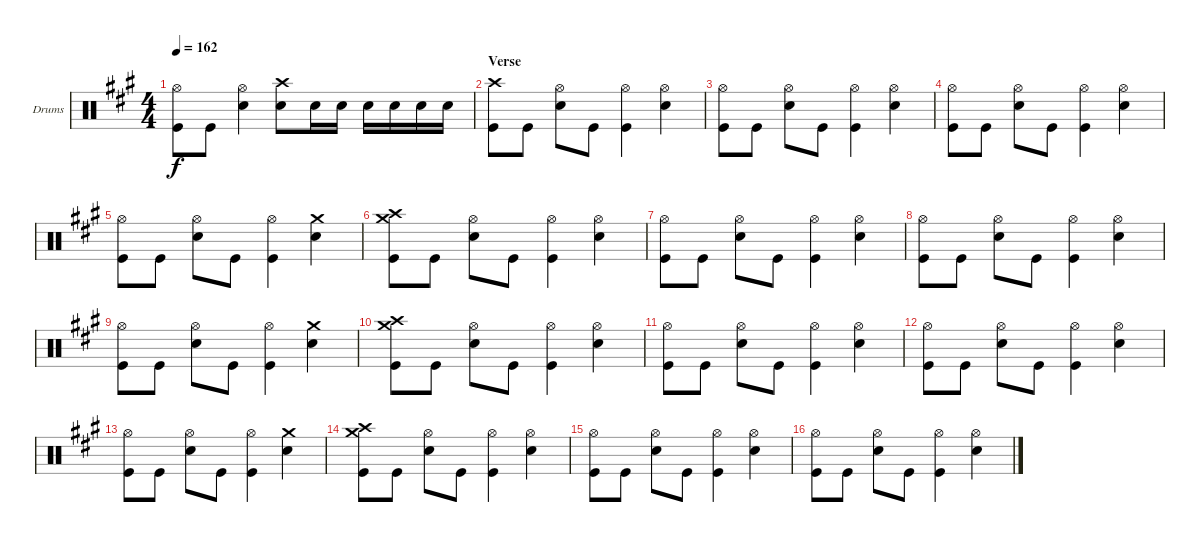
\defaultSystemsLayout 4
\bracketExtendMode groupsimilarinstruments
\firstSystemTrackNameOrientation horizontal
\otherSystemsTrackNameOrientation horizontal
\track ("Drums" "Drums") {instrument percussion}
\staff {score}
\articulation defaults
\ts (4 4)
\tempo 162
\clef neutral
\scale
1.05801
\ks a
("Hi-Hat (open)" "Kick (hit)").8{dy f} "Kick (hit)".8 ("Hi-Hat (open)" "Snare (hit) 2").4 ("Crash high (hit)" "Snare (hit) 2").8 "Snare (hit) 2".16 "Snare (hit) 2".16 "Snare (hit) 2".16 "Snare (hit) 2".16 "Snare (hit) 2".16 "Snare (hit) 2".16 |
\section ("" "Verse")
\scale
0.941992 ("Crash high (hit)" "Kick (hit)").8 "Kick (hit)".8 ("Hi-Hat (open)" "Snare (hit) 2").8 "Kick (hit)".8 ("Hi-Hat (open)" "Kick (hit)").4 ("Hi-Hat (open)" "Snare (hit) 2").4 |
\scale
1.05801 ("Hi-Hat (open)" "Kick (hit)").8 "Kick (hit)".8 ("Hi-Hat (open)" "Snare (hit) 2").8 "Kick (hit)".8 ("Hi-Hat (open)" "Kick (hit)").4 ("Hi-Hat (open)" "Snare (hit) 2").4 |
\scale
0.941992 ("Hi-Hat (open)" "Kick (hit)").8 "Kick (hit)".8 ("Hi-Hat (open)" "Snare (hit) 2").8 "Kick (hit)".8 ("Hi-Hat (open)" "Kick (hit)").4 ("Hi-Hat (open)" "Snare (hit) 2").4 |
\scale
1.05801 ("Hi-Hat (open)" "Kick (hit)").8 "Kick (hit)".8 ("Hi-Hat (open)" "Snare (hit) 2").8 "Kick (hit)".8 ("Hi-Hat (open)" "Kick (hit)").4 ("Crash medium (hit)" "Snare (hit) 2").4 |
\scale
0.941992 ("Crash medium (hit)" "Crash high (hit)" "Kick (hit)").8 "Kick (hit)".8 ("Hi-Hat (open)" "Snare (hit) 2").8 "Kick (hit)".8 ("Hi-Hat (open)" "Kick (hit)").4 ("Hi-Hat (open)" "Snare (hit) 2").4 |
\scale
1.05801 ("Hi-Hat (open)" "Kick (hit)").8 "Kick (hit)".8 ("Hi-Hat (open)" "Snare (hit) 2").8 "Kick (hit)".8 ("Hi-Hat (open)" "Kick (hit)").4 ("Hi-Hat (open)" "Snare (hit) 2").4 |
\scale
0.941992 ("Hi-Hat (open)" "Kick (hit)").8 "Kick (hit)".8 ("Hi-Hat (open)" "Snare (hit) 2").8 "Kick (hit)".8 ("Hi-Hat (open)" "Kick (hit)").4 ("Hi-Hat (open)" "Snare (hit) 2").4 |
\scale
1.05801 ("Hi-Hat (open)" "Kick (hit)").8 "Kick (hit)".8 ("Hi-Hat (open)" "Snare (hit) 2").8 "Kick (hit)".8 ("Hi-Hat (open)" "Kick (hit)").4 ("Crash medium (hit)" "Snare (hit) 2").4 |
\scale
0.941992 ("Crash medium (hit)" "Crash high (hit)" "Kick (hit)").8 "Kick (hit)".8 ("Hi-Hat (open)" "Snare (hit) 2").8 "Kick (hit)".8 ("Hi-Hat (open)" "Kick (hit)").4 ("Hi-Hat (open)" "Snare (hit) 2").4 |
\scale
1.05801 ("Hi-Hat (open)" "Kick (hit)").8 "Kick (hit)".8 ("Hi-Hat (open)" "Snare (hit) 2").8 "Kick (hit)".8 ("Hi-Hat (open)" "Kick (hit)").4 ("Hi-Hat (open)" "Snare (hit) 2").4 |
\scale
0.941992 ("Hi-Hat (open)" "Kick (hit)").8 "Kick (hit)".8 ("Hi-Hat (open)" "Snare (hit) 2").8 "Kick (hit)".8 ("Hi-Hat (open)" "Kick (hit)").4 ("Hi-Hat (open)" "Snare (hit) 2").4 |
\scale
1.05801 ("Hi-Hat (open)" "Kick (hit)").8 "Kick (hit)".8 ("Hi-Hat (open)" "Snare (hit) 2").8 "Kick (hit)".8 ("Hi-Hat (open)" "Kick (hit)").4 ("Crash medium (hit)" "Snare (hit) 2").4 |
\scale
0.941992 ("Crash medium (hit)" "Crash high (hit)" "Kick (hit)").8 "Kick (hit)".8 ("Hi-Hat (open)" "Snare (hit) 2").8 "Kick (hit)".8 ("Hi-Hat (open)" "Kick (hit)").4 ("Hi-Hat (open)" "Snare (hit) 2").4 |
\scale
1.05801 ("Hi-Hat (open)" "Kick (hit)").8 "Kick (hit)".8 ("Hi-Hat (open)" "Snare (hit) 2").8 "Kick (hit)".8 ("Hi-Hat (open)" "Kick (hit)").4 ("Hi-Hat (open)" "Snare (hit) 2").4 |
\scale
0.941992 ("Hi-Hat (open)" "Kick (hit)").8 "Kick (hit)".8 ("Hi-Hat (open)" "Snare (hit) 2").8 "Kick (hit)".8 ("Hi-Hat (open)" "Kick (hit)").4 ("Hi-Hat (open)" "Snare (hit) 2").4
